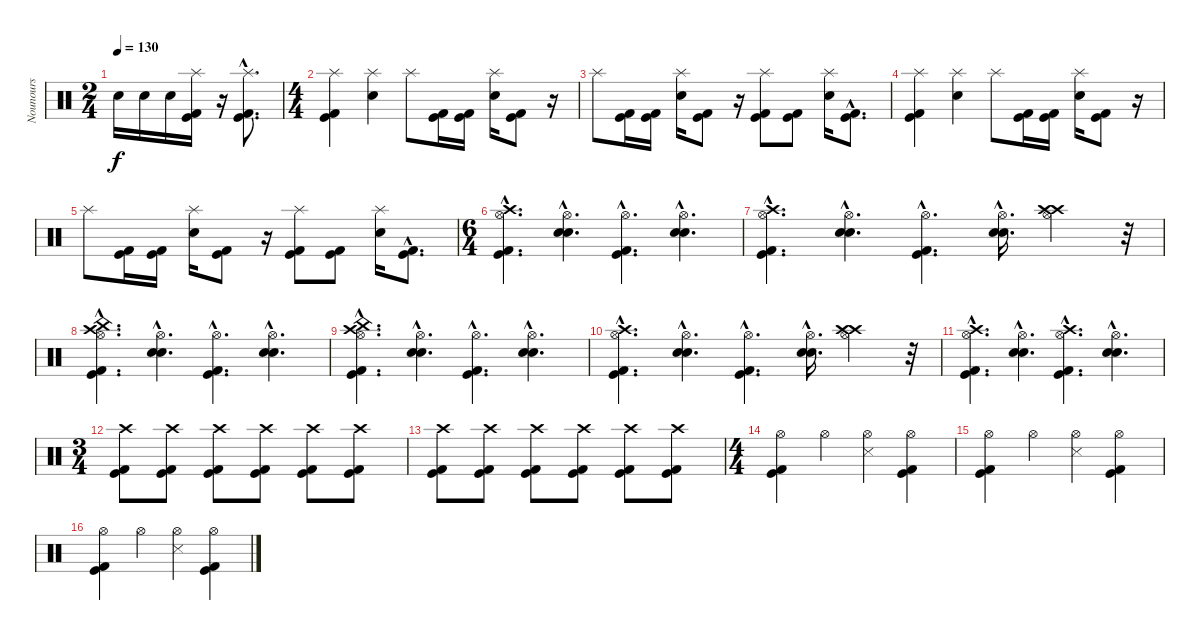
\track ("Nounours" "Nounours") {instrument percussion}
\staff {score}
\articulation defaults
\ts (2 4)
\tempo 130
\clef neutral
\ks c "Snare (hit) 2".16{dy f} "Snare (hit) 2".16 "Snare (hit) 2".16
("Splash (hit)" "Kick (hit)" "Kick (hit) 2").16 r.16 ("Splash (hit)"{hac} "Kick (hit)"{hac} "Kick (hit) 2"{hac}).8{d} |
\ts (4 4)
("Splash (hit)" "Kick (hit) 2" "Kick (hit)").4 ("Splash (hit)" "Snare (hit) 2").4 "Splash (hit)".8 ("Kick (hit) 2" "Kick (hit)").16 ("Kick (hit)" "Kick (hit) 2").16 ("Splash (hit)" "Snare (hit) 2").16 ("Kick (hit)" "Kick (hit) 2").8 r.16 |
"Splash (hit)".8 ("Kick (hit)" "Kick (hit) 2").16 ("Kick (hit) 2" "Kick (hit)").16 ("Splash (hit)" "Snare (hit) 2").16 ("Kick (hit) 2" "Kick (hit)").8 r.16 ("Splash (hit)" "Kick (hit) 2" "Kick (hit)").8 ("Kick (hit) 2" "Kick (hit)").8 ("Splash (hit)" "Snare (hit) 2").16 ("Kick (hit) 2"{hac} "Kick (hit)"{hac}).8{d} |
("Splash (hit)" "Kick (hit) 2" "Kick (hit)").4 ("Splash (hit)" "Snare (hit) 2").4 "Splash (hit)".8 ("Kick (hit) 2" "Kick (hit)").16 ("Kick (hit)" "Kick (hit) 2").16 ("Splash (hit)" "Snare (hit) 2").16 ("Kick (hit)" "Kick (hit) 2").8 r.16 |
"Splash (hit)".8 ("Kick (hit)" "Kick (hit) 2").16 ("Kick (hit) 2" "Kick (hit)").16 ("Splash (hit)" "Snare (hit) 2").16 ("Kick (hit) 2" "Kick (hit)").8 r.16 ("Splash (hit)" "Kick (hit) 2" "Kick (hit)").8 ("Kick (hit) 2" "Kick (hit)").8 ("Splash (hit)" "Snare (hit) 2").16 ("Kick (hit) 2"{hac} "Kick (hit)"{hac}).8{d} |
\ts (6 4)
("Hi-Hat (open)"{hac} "Crash high (hit)"{hac} "Kick (hit) 2"{hac} "Kick (hit)"{hac}).4{d} ("Hi-Hat (open)"{hac} "Snare (hit) 2"{hac} "Electric Snare (hit)"{hac}).4{d} ("Hi-Hat (open)"{hac} "Kick (hit)"{hac} "Kick (hit) 2"{hac}).4{d} ("Hi-Hat (open)"{hac} "Snare (hit) 2"{hac} "Electric Snare (hit)"{hac}).4{d} |
("Hi-Hat (open)"{hac} "Crash high (hit)"{hac} "Kick (hit) 2"{hac} "Kick (hit)"{hac}).4{d} ("Hi-Hat (open)"{hac} "Snare (hit) 2"{hac} "Electric Snare (hit)"{hac}).4{d} ("Hi-Hat (open)"{hac} "Kick (hit)"{hac} "Kick (hit) 2"{hac}).4{d} ("Hi-Hat (open)"{hac} "Snare (hit) 2"{hac} "Electric Snare (hit)"{hac}).16{d} ("Hi-Hat (open)" "Crash high (hit)" "Crash high (hit)").4 r.32 |
("China (hit)"{hac} "Hi-Hat (open)"{hac} "Crash high (hit)"{hac} "Kick (hit) 2"{hac} "Kick (hit)"{hac}).4{d} ("Hi-Hat (open)"{hac} "Snare (hit) 2"{hac} "Electric Snare (hit)"{hac}).4{d} ("Hi-Hat (open)"{hac} "Kick (hit)"{hac} "Kick (hit) 2"{hac}).4{d} ("Hi-Hat (open)"{hac} "Snare (hit) 2"{hac} "Electric Snare (hit)"{hac}).4{d} |
("China (hit)"{hac} "Hi-Hat (open)"{hac} "Crash high (hit)"{hac} "Kick (hit) 2"{hac} "Kick (hit)"{hac}).4{d} ("Hi-Hat (open)"{hac} "Snare (hit) 2"{hac} "Electric Snare (hit)"{hac}).4{d} ("Hi-Hat (open)"{hac} "Kick (hit)"{hac} "Kick (hit) 2"{hac}).4{d} ("Hi-Hat (open)"{hac} "Snare (hit) 2"{hac} "Electric Snare (hit)"{hac}).4{d} |
("Hi-Hat (open)"{hac} "Crash high (hit)"{hac} "Kick (hit) 2"{hac} "Kick (hit)"{hac}).4{d} ("Hi-Hat (open)"{hac} "Snare (hit) 2"{hac} "Electric Snare (hit)"{hac}).4{d} ("Hi-Hat (open)"{hac} "Kick (hit)"{hac} "Kick (hit) 2"{hac}).4{d} ("Hi-Hat (open)"{hac} "Snare (hit) 2"{hac} "Electric Snare (hit)"{hac}).16{d} ("Hi-Hat (open)" "Crash high (hit)" "Crash high (hit)").4 r.32 |
("Hi-Hat (open)"{hac} "Crash high (hit)"{hac} "Kick (hit) 2"{hac} "Kick (hit)"{hac}).4{d} ("Hi-Hat (open)"{hac} "Snare (hit) 2"{hac} "Electric Snare (hit)"{hac}).4{d} ("Hi-Hat (open)"{hac} "Crash high (hit)"{hac} "Kick (hit)"{hac} "Kick (hit) 2"{hac}).4{d} ("Hi-Hat (open)"{hac} "Snare (hit) 2"{hac} "Electric Snare (hit)"{hac}).4{d} |
\ts (3 4)
("Crash high (hit)" "Kick (hit) 2" "Kick (hit)").8 ("Crash high (hit)" "Kick (hit)" "Kick (hit) 2").8 ("Crash high (hit)" "Kick (hit)" "Kick (hit) 2").8 ("Crash high (hit)" "Kick (hit)" "Kick (hit) 2").8 ("Crash high (hit)" "Kick (hit) 2" "Kick (hit)").8 ("Crash high (hit)" "Kick (hit) 2" "Kick (hit)").8 |
("Crash high (hit)" "Kick (hit) 2" "Kick (hit)").8 ("Crash high (hit)" "Kick (hit)" "Kick (hit) 2").8 ("Crash high (hit)" "Kick (hit)" "Kick (hit) 2").8 ("Crash high (hit)" "Kick (hit)" "Kick (hit) 2").8 ("Crash high (hit)" "Kick (hit) 2" "Kick (hit)").8 ("Crash high (hit)" "Kick (hit) 2" "Kick (hit)").8 |
\ts (4 4)
("Hi-Hat (open)" "Kick (hit)" "Kick (hit) 2").4 "Hi-Hat (open)".4 ("Hi-Hat (open)" "Snare (side stick) 3").4 ("Hi-Hat (open)" "Kick (hit)" "Kick (hit) 2").4 |
("Hi-Hat (open)" "Kick (hit)" "Kick (hit) 2").4 "Hi-Hat (open)".4 ("Hi-Hat (open)" "Snare (side stick) 3").4 ("Hi-Hat (open)" "Kick (hit)" "Kick (hit) 2").4 |
("Hi-Hat (open)" "Kick (hit)" "Kick (hit) 2").4 "Hi-Hat (open)".4 ("Hi-Hat (open)" "Snare (side stick) 3").4 ("Hi-Hat (open)" "Kick (hit)" "Kick (hit) 2").4
